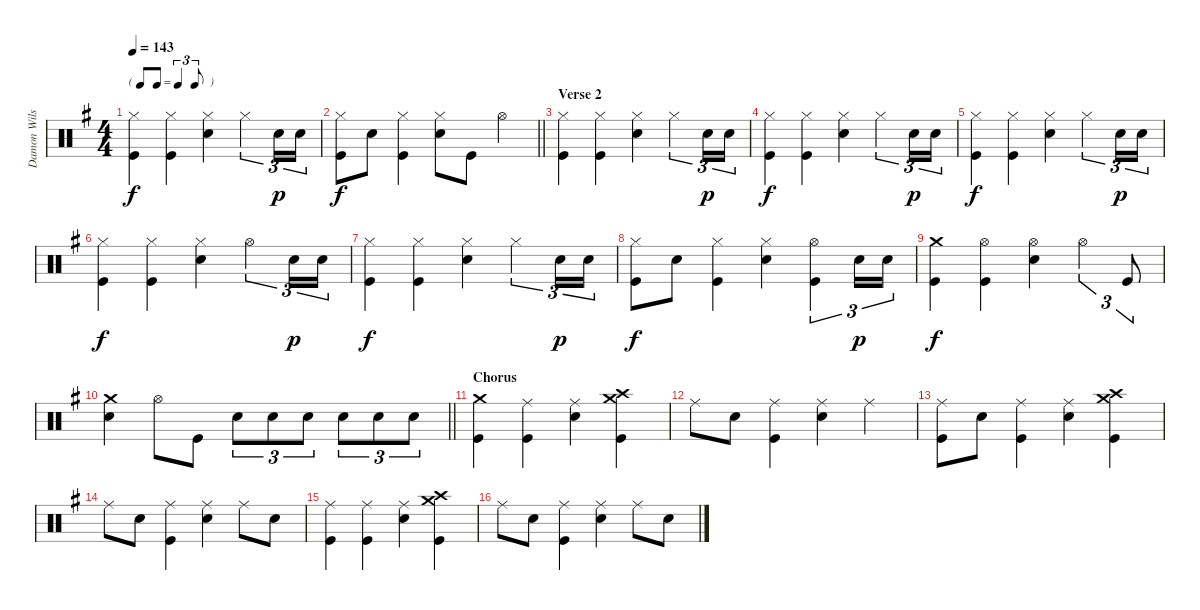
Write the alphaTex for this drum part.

\track ("Damon Wilson" "Damon Wils") {instrument percussion}
\staff {score}
\articulation defaults
\ts (4 4)
\tf triplet8th
\tempo 143
\clef neutral
\ks g
("Hi-Hat (closed)" "Kick (hit)").4{dy f} ("Hi-Hat (closed)" "Kick (hit)").4 ("Hi-Hat (closed)" "Electric Snare (hit)").4 "Hi-Hat (closed)".4{tu (3 2)} "Electric Snare (hit)".16{tu (3 2) dy p} "Electric Snare (hit)".16{tu (3 2)} |
\barLineRight lightlight
("Hi-Hat (closed)" "Kick (hit)").8{dy f} "Electric Snare (hit)".8 ("Hi-Hat (closed)" "Kick (hit)").4 ("Hi-Hat (closed)" "Electric Snare (hit)").8 "Kick (hit)".8 "Hi-Hat (open)".4 |
\section ("" "Verse 2")
("Hi-Hat (closed)" "Kick (hit)").4 ("Hi-Hat (closed)" "Kick (hit)").4 ("Hi-Hat (closed)" "Electric Snare (hit)").4 "Hi-Hat (closed)".4{tu (3 2)} "Electric Snare (hit)".16{tu (3 2) dy p} "Electric Snare (hit)".16{tu (3 2)} |
("Hi-Hat (closed)" "Kick (hit)").4{dy f} ("Hi-Hat (closed)" "Kick (hit)").4 ("Hi-Hat (closed)" "Electric Snare (hit)").4 "Hi-Hat (closed)".4{tu (3 2)} "Electric Snare (hit)".16{tu (3 2) dy p} "Electric Snare (hit)".16{tu (3 2)} |
("Hi-Hat (closed)" "Kick (hit)").4{dy f} ("Hi-Hat (closed)" "Kick (hit)").4 ("Hi-Hat (closed)" "Electric Snare (hit)").4 "Hi-Hat (closed)".4{tu (3 2)} "Electric Snare (hit)".16{tu (3 2) dy p} "Electric Snare (hit)".16{tu (3 2)} |
("Hi-Hat (closed)" "Kick (hit)").4{dy f} ("Hi-Hat (closed)" "Kick (hit)").4 ("Hi-Hat (closed)" "Electric Snare (hit)").4 "Hi-Hat (open)".4{tu (3 2)} "Electric Snare (hit)".16{tu (3 2) dy p} "Electric Snare (hit)".16{tu (3 2)} |
("Hi-Hat (closed)" "Kick (hit)").4{dy f} ("Hi-Hat (closed)" "Kick (hit)").4 ("Hi-Hat (closed)" "Electric Snare (hit)").4 "Hi-Hat (closed)".4{tu (3 2)} "Electric Snare (hit)".16{tu (3 2) dy p} "Electric Snare (hit)".16{tu (3 2)} |
("Hi-Hat (closed)" "Kick (hit)").8{dy f} "Electric Snare (hit)".8 ("Hi-Hat (closed)" "Kick (hit)").4 ("Hi-Hat (closed)" "Electric Snare (hit)").4 ("Hi-Hat (open)" "Kick (hit)").4{tu (3 2)} "Electric Snare (hit)".16{tu (3 2) dy p} "Electric Snare (hit)".16{tu (3 2)} |
("Crash medium (hit)" "Kick (hit)").4{dy f} ("Hi-Hat (open)" "Kick (hit)").4 ("Hi-Hat (open)" "Electric Snare (hit)").4 "Hi-Hat (open)".4{tu (3 2)} "Kick (hit)".8{tu (3 2)} |
\barLineRight lightlight
("Crash medium (hit)" "Electric Snare (hit)").4 "Hi-Hat (open)".8 "Kick (hit)".8 "Electric Snare (hit)".8{tu (3 2)} "Electric Snare (hit)".8{tu (3 2)} "Electric Snare (hit)".8{tu (3 2)} "Electric Snare (hit)".8{tu (3 2)} "Electric Snare (hit)".8{tu (3 2)} "Electric Snare (hit)".8{tu (3 2)} |
\section ("" "Chorus")
("Crash medium (hit)" "Kick (hit)").4 ("Ride (middle)" "Kick (hit)").4 ("Ride (middle)" "Electric Snare (hit)").4 ("Crash high (hit)" "Crash medium (hit)" "Kick (hit)").4 |
"Ride (middle)".8 "Electric Snare (hit)".8 ("Ride (middle)" "Kick (hit)").4 ("Ride (middle)" "Electric Snare (hit)").4 "Ride (middle)".4 |
("Ride (middle)" "Kick (hit)").8 "Electric Snare (hit)".8 ("Ride (middle)" "Kick (hit)").4 ("Ride (middle)" "Electric Snare (hit)").4 ("Crash high (hit)" "Crash medium (hit)" "Kick (hit)").4 |
"Ride (middle)".8 "Electric Snare (hit)".8 ("Ride (middle)" "Kick (hit)").4 ("Ride (middle)" "Electric Snare (hit)").4 "Ride (middle)".8 "Electric Snare (hit)".8 |
("Ride (middle)" "Kick (hit)").4 ("Ride (middle)" "Kick (hit)").4 ("Ride (middle)" "Electric Snare (hit)").4 ("Crash high (hit)" "Crash medium (hit)" "Kick (hit)").4 |
"Ride (middle)".8 "Electric Snare (hit)".8 ("Ride (middle)" "Kick (hit)").4 ("Ride (middle)" "Electric Snare (hit)").4 "Ride (middle)".8 "Electric Snare (hit)".8
